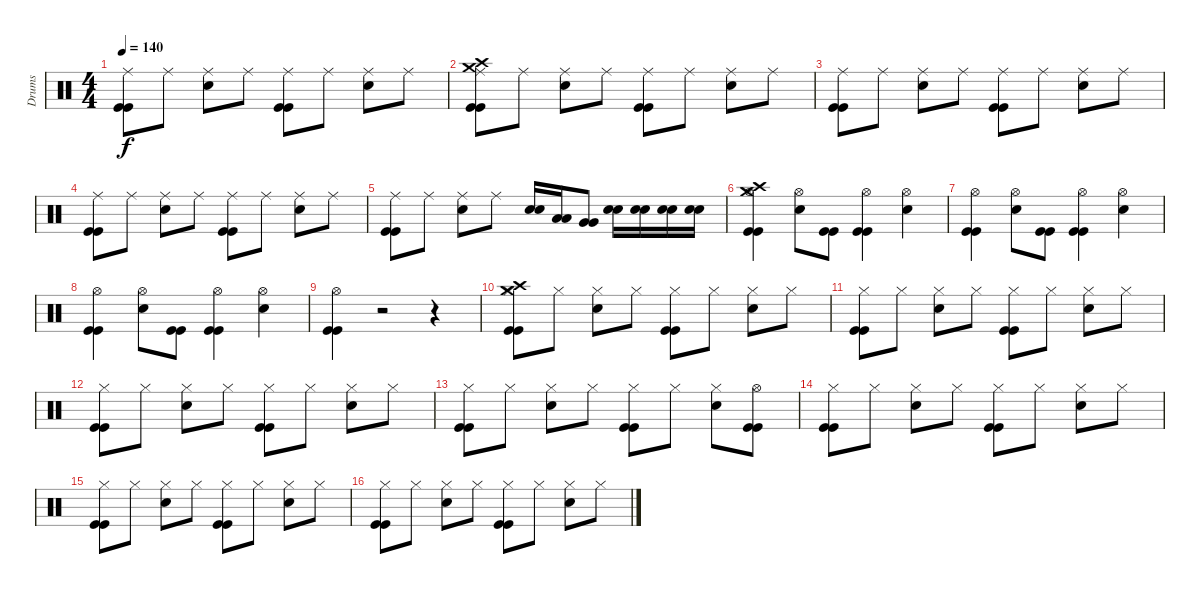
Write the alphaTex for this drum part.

\track ("Drums" "Drums") {instrument percussion}
\staff {score}
\articulation defaults
\ts (4 4)
\tempo 140
\clef neutral
\ks c
("Ride (middle)" "Kick (hit)" "Kick (hit)").8{dy f} "Ride (middle)".8 ("Ride (middle)" "Snare (hit) 2").8 "Ride (middle)".8 ("Ride (middle)" "Kick (hit)" "Kick (hit)").8 "Ride (middle)".8 ("Ride (middle)" "Snare (hit) 2").8 "Ride (middle)".8 |
("Ride (middle)" "Crash high (hit)" "Crash medium (hit)" "Kick (hit)" "Kick (hit)").8 "Ride (middle)".8 ("Ride (middle)" "Snare (hit) 2").8 "Ride (middle)".8 ("Ride (middle)" "Kick (hit)" "Kick (hit)").8 "Ride (middle)".8 ("Ride (middle)" "Snare (hit) 2").8 "Ride (middle)".8 |
("Ride (middle)" "Kick (hit)" "Kick (hit)").8 "Ride (middle)".8 ("Ride (middle)" "Snare (hit) 2").8 "Ride (middle)".8 ("Ride (middle)" "Kick (hit)" "Kick (hit)").8 "Ride (middle)".8 ("Ride (middle)" "Snare (hit) 2").8 "Ride (middle)".8 |
("Ride (middle)" "Kick (hit)" "Kick (hit)").8 "Ride (middle)".8 ("Ride (middle)" "Snare (hit) 2").8 "Ride (middle)".8 ("Ride (middle)" "Kick (hit)" "Kick (hit)").8 "Ride (middle)".8 ("Ride (middle)" "Snare (hit) 2").8 "Ride (middle)".8 |
("Ride (middle)" "Kick (hit)" "Kick (hit)").8 "Ride (middle)".8 ("Ride (middle)" "Snare (hit) 2").8 "Ride (middle)".8 ("Snare (hit) 2" "Snare (hit) 2").16 ("Low Tom (hit)" "Low Tom (hit)").16 ("Very Low Tom (hit)" "Very Low Tom (hit)").8 ("Snare (hit) 2" "Snare (hit) 2").16 ("Snare (hit) 2" "Snare (hit) 2").16 ("Snare (hit) 2" "Snare (hit) 2").16 ("Snare (hit) 2" "Snare (hit) 2").16 |
("Hi-Hat (open)" "Crash high (hit)" "Crash medium (hit)" "Kick (hit)" "Kick (hit)").4 ("Hi-Hat (open)" "Snare (hit) 2").8 ("Kick (hit)" "Kick (hit)").8 ("Hi-Hat (open)" "Kick (hit)" "Kick (hit)").4 ("Hi-Hat (open)" "Snare (hit) 2").4 |
("Hi-Hat (open)" "Kick (hit)" "Kick (hit)").4 ("Hi-Hat (open)" "Snare (hit) 2").8 ("Kick (hit)" "Kick (hit)").8 ("Hi-Hat (open)" "Kick (hit)" "Kick (hit)").4 ("Hi-Hat (open)" "Snare (hit) 2").4 |
("Hi-Hat (open)" "Kick (hit)" "Kick (hit)").4 ("Hi-Hat (open)" "Snare (hit) 2").8 ("Kick (hit)" "Kick (hit)").8 ("Hi-Hat (open)" "Kick (hit)" "Kick (hit)").4 ("Hi-Hat (open)" "Snare (hit) 2").4 |
("Hi-Hat (open)" "Kick (hit)" "Kick (hit)").4 r.2 r.4 |
("Hi-Hat (closed)" "Crash high (hit)" "Crash medium (hit)" "Kick (hit)" "Kick (hit)").8 "Hi-Hat (closed)".8 ("Hi-Hat (closed)" "Snare (hit) 2").8 "Hi-Hat (closed)".8 ("Hi-Hat (closed)" "Kick (hit)" "Kick (hit)").8 "Hi-Hat (closed)".8 ("Hi-Hat (closed)" "Snare (hit) 2").8 "Hi-Hat (closed)".8 |
("Hi-Hat (closed)" "Kick (hit)" "Kick (hit)").8 "Hi-Hat (closed)".8 ("Hi-Hat (closed)" "Snare (hit) 2").8 "Hi-Hat (closed)".8 ("Hi-Hat (closed)" "Kick (hit)" "Kick (hit)").8 "Hi-Hat (closed)".8 ("Hi-Hat (closed)" "Snare (hit) 2").8 "Hi-Hat (closed)".8 |
("Hi-Hat (closed)" "Kick (hit)" "Kick (hit)").8 "Hi-Hat (closed)".8 ("Hi-Hat (closed)" "Snare (hit) 2").8 "Hi-Hat (closed)".8 ("Hi-Hat (closed)" "Kick (hit)" "Kick (hit)").8 "Hi-Hat (closed)".8 ("Hi-Hat (closed)" "Snare (hit) 2").8 "Hi-Hat (closed)".8 |
("Hi-Hat (closed)" "Kick (hit)" "Kick (hit)").8 "Hi-Hat (closed)".8 ("Hi-Hat (closed)" "Snare (hit) 2").8 "Hi-Hat (closed)".8 ("Hi-Hat (closed)" "Kick (hit)" "Kick (hit)").8 "Hi-Hat (closed)".8 ("Hi-Hat (closed)" "Snare (hit) 2").8 ("Hi-Hat (open)" "Kick (hit)" "Kick (hit)").8 |
("Hi-Hat (closed)" "Kick (hit)" "Kick (hit)").8 "Hi-Hat (closed)".8 ("Hi-Hat (closed)" "Snare (hit) 2").8 "Hi-Hat (closed)".8 ("Hi-Hat (closed)" "Kick (hit)" "Kick (hit)").8 "Hi-Hat (closed)".8 ("Hi-Hat (closed)" "Snare (hit) 2").8 "Hi-Hat (closed)".8 |
("Hi-Hat (closed)" "Kick (hit)" "Kick (hit)").8 "Hi-Hat (closed)".8 ("Hi-Hat (closed)" "Snare (hit) 2").8 "Hi-Hat (closed)".8 ("Hi-Hat (closed)" "Kick (hit)" "Kick (hit)").8 "Hi-Hat (closed)".8 ("Hi-Hat (closed)" "Snare (hit) 2").8 "Hi-Hat (closed)".8 |
("Hi-Hat (closed)" "Kick (hit)" "Kick (hit)").8 "Hi-Hat (closed)".8 ("Hi-Hat (closed)" "Snare (hit) 2").8 "Hi-Hat (closed)".8 ("Hi-Hat (closed)" "Kick (hit)" "Kick (hit)").8 "Hi-Hat (closed)".8 ("Hi-Hat (closed)" "Snare (hit) 2").8 "Hi-Hat (closed)".8
